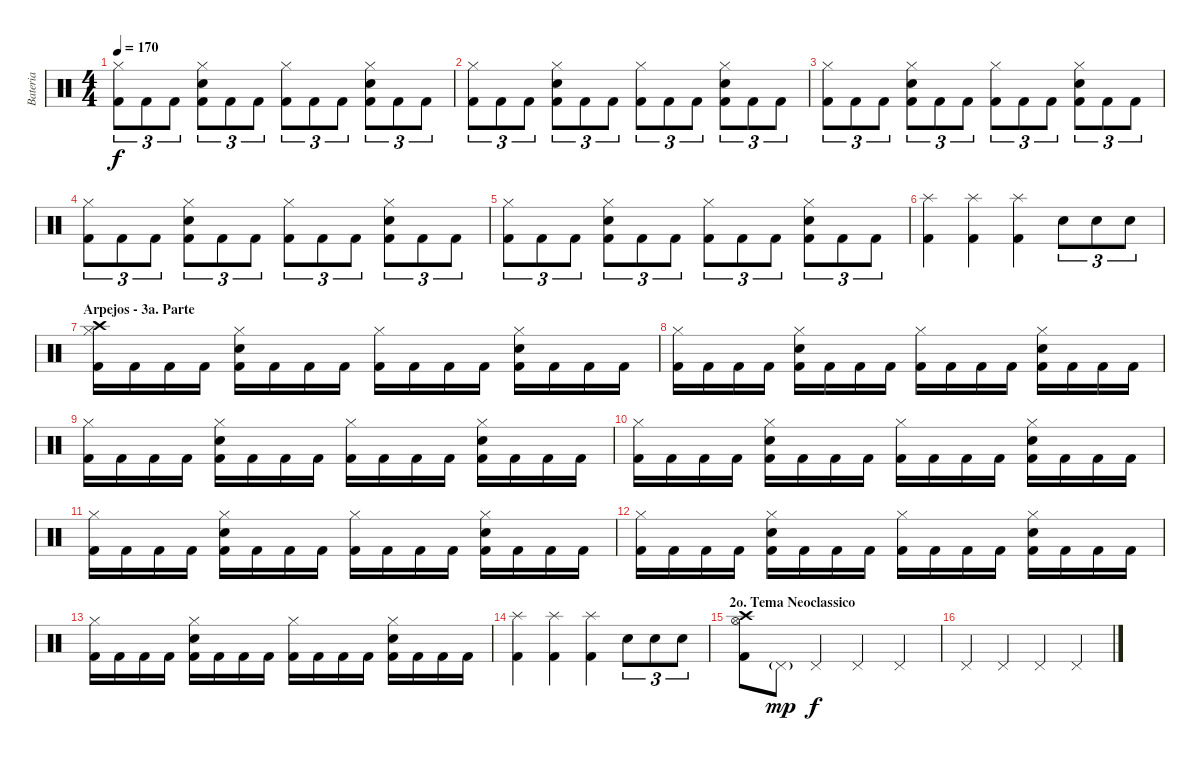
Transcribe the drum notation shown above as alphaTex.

\track ("Bateria" "Bateria") {instrument percussion}
\staff {score}
\articulation defaults
\ts (4 4)
\tempo 170
\clef neutral
\ks c
("Hi-Hat (closed)" "Kick (hit) 2").8{tu (3 2) dy f} "Kick (hit) 2".8{tu (3 2)} "Kick (hit) 2".8{tu (3 2)} ("Hi-Hat (closed)" "Snare (hit) 2" "Kick (hit) 2").8{tu (3 2)} "Kick (hit) 2".8{tu (3 2)} "Kick (hit) 2".8{tu (3 2)} ("Hi-Hat (closed)" "Kick (hit) 2").8{tu (3 2)} "Kick (hit) 2".8{tu (3 2)} "Kick (hit) 2".8{tu (3 2)} ("Hi-Hat (closed)" "Snare (hit) 2" "Kick (hit) 2").8{tu (3 2)} "Kick (hit) 2".8{tu (3 2)} "Kick (hit) 2".8{tu (3 2)} |
("Hi-Hat (closed)" "Kick (hit) 2").8{tu (3 2)} "Kick (hit) 2".8{tu (3 2)} "Kick (hit) 2".8{tu (3 2)} ("Hi-Hat (closed)" "Snare (hit) 2" "Kick (hit) 2").8{tu (3 2)} "Kick (hit) 2".8{tu (3 2)} "Kick (hit) 2".8{tu (3 2)} ("Hi-Hat (closed)" "Kick (hit) 2").8{tu (3 2)} "Kick (hit) 2".8{tu (3 2)} "Kick (hit) 2".8{tu (3 2)} ("Hi-Hat (closed)" "Snare (hit) 2" "Kick (hit) 2").8{tu (3 2)} "Kick (hit) 2".8{tu (3 2)} "Kick (hit) 2".8{tu (3 2)} |
("Hi-Hat (closed)" "Kick (hit) 2").8{tu (3 2)} "Kick (hit) 2".8{tu (3 2)} "Kick (hit) 2".8{tu (3 2)} ("Hi-Hat (closed)" "Snare (hit) 2" "Kick (hit) 2").8{tu (3 2)} "Kick (hit) 2".8{tu (3 2)} "Kick (hit) 2".8{tu (3 2)} ("Hi-Hat (closed)" "Kick (hit) 2").8{tu (3 2)} "Kick (hit) 2".8{tu (3 2)} "Kick (hit) 2".8{tu (3 2)} ("Hi-Hat (closed)" "Snare (hit) 2" "Kick (hit) 2").8{tu (3 2)} "Kick (hit) 2".8{tu (3 2)} "Kick (hit) 2".8{tu (3 2)} |
("Hi-Hat (closed)" "Kick (hit) 2").8{tu (3 2)} "Kick (hit) 2".8{tu (3 2)} "Kick (hit) 2".8{tu (3 2)} ("Hi-Hat (closed)" "Snare (hit) 2" "Kick (hit) 2").8{tu (3 2)} "Kick (hit) 2".8{tu (3 2)} "Kick (hit) 2".8{tu (3 2)} ("Hi-Hat (closed)" "Kick (hit) 2").8{tu (3 2)} "Kick (hit) 2".8{tu (3 2)} "Kick (hit) 2".8{tu (3 2)} ("Hi-Hat (closed)" "Snare (hit) 2" "Kick (hit) 2").8{tu (3 2)} "Kick (hit) 2".8{tu (3 2)} "Kick (hit) 2".8{tu (3 2)} |
("Hi-Hat (closed)" "Kick (hit) 2").8{tu (3 2)} "Kick (hit) 2".8{tu (3 2)} "Kick (hit) 2".8{tu (3 2)} ("Hi-Hat (closed)" "Snare (hit) 2" "Kick (hit) 2").8{tu (3 2)} "Kick (hit) 2".8{tu (3 2)} "Kick (hit) 2".8{tu (3 2)} ("Hi-Hat (closed)" "Kick (hit) 2").8{tu (3 2)} "Kick (hit) 2".8{tu (3 2)} "Kick (hit) 2".8{tu (3 2)} ("Hi-Hat (closed)" "Snare (hit) 2" "Kick (hit) 2").8{tu (3 2)} "Kick (hit) 2".8{tu (3 2)} "Kick (hit) 2".8{tu (3 2)} |
("Kick (hit) 2" "Splash (hit)").4 ("Kick (hit) 2" "Splash (hit)").4 ("Kick (hit) 2" "Splash (hit)").4 "Snare (hit) 2".8{tu (3 2)} "Snare (hit) 2".8{tu (3 2)} "Snare (hit) 2".8{tu (3 2)} |
\section ("" "Arpejos - 3a. Parte")
("Hi-Hat (closed)" "Kick (hit) 2" "Crash high (hit)").16 "Kick (hit) 2".16 "Kick (hit) 2".16 "Kick (hit) 2".16 ("Hi-Hat (closed)" "Snare (hit) 2" "Kick (hit) 2").16 "Kick (hit) 2".16 "Kick (hit) 2".16 "Kick (hit) 2".16 ("Hi-Hat (closed)" "Kick (hit) 2").16 "Kick (hit) 2".16 "Kick (hit) 2".16 "Kick (hit) 2".16 ("Hi-Hat (closed)" "Snare (hit) 2" "Kick (hit) 2").16 "Kick (hit) 2".16 "Kick (hit) 2".16 "Kick (hit) 2".16 |
("Hi-Hat (closed)" "Kick (hit) 2").16 "Kick (hit) 2".16 "Kick (hit) 2".16 "Kick (hit) 2".16 ("Hi-Hat (closed)" "Snare (hit) 2" "Kick (hit) 2").16 "Kick (hit) 2".16 "Kick (hit) 2".16 "Kick (hit) 2".16 ("Hi-Hat (closed)" "Kick (hit) 2").16 "Kick (hit) 2".16 "Kick (hit) 2".16 "Kick (hit) 2".16 ("Hi-Hat (closed)" "Snare (hit) 2" "Kick (hit) 2").16 "Kick (hit) 2".16 "Kick (hit) 2".16 "Kick (hit) 2".16 |
("Hi-Hat (closed)" "Kick (hit) 2").16 "Kick (hit) 2".16 "Kick (hit) 2".16 "Kick (hit) 2".16 ("Hi-Hat (closed)" "Snare (hit) 2" "Kick (hit) 2").16 "Kick (hit) 2".16 "Kick (hit) 2".16 "Kick (hit) 2".16 ("Hi-Hat (closed)" "Kick (hit) 2").16 "Kick (hit) 2".16 "Kick (hit) 2".16 "Kick (hit) 2".16 ("Hi-Hat (closed)" "Snare (hit) 2" "Kick (hit) 2").16 "Kick (hit) 2".16 "Kick (hit) 2".16 "Kick (hit) 2".16 |
("Hi-Hat (closed)" "Kick (hit) 2").16 "Kick (hit) 2".16 "Kick (hit) 2".16 "Kick (hit) 2".16 ("Hi-Hat (closed)" "Snare (hit) 2" "Kick (hit) 2").16 "Kick (hit) 2".16 "Kick (hit) 2".16 "Kick (hit) 2".16 ("Hi-Hat (closed)" "Kick (hit) 2").16 "Kick (hit) 2".16 "Kick (hit) 2".16 "Kick (hit) 2".16 ("Hi-Hat (closed)" "Snare (hit) 2" "Kick (hit) 2").16 "Kick (hit) 2".16 "Kick (hit) 2".16 "Kick (hit) 2".16 |
("Hi-Hat (closed)" "Kick (hit) 2").16 "Kick (hit) 2".16 "Kick (hit) 2".16 "Kick (hit) 2".16 ("Hi-Hat (closed)" "Snare (hit) 2" "Kick (hit) 2").16 "Kick (hit) 2".16 "Kick (hit) 2".16 "Kick (hit) 2".16 ("Hi-Hat (closed)" "Kick (hit) 2").16 "Kick (hit) 2".16 "Kick (hit) 2".16 "Kick (hit) 2".16 ("Hi-Hat (closed)" "Snare (hit) 2" "Kick (hit) 2").16 "Kick (hit) 2".16 "Kick (hit) 2".16 "Kick (hit) 2".16 |
("Hi-Hat (closed)" "Kick (hit) 2").16 "Kick (hit) 2".16 "Kick (hit) 2".16 "Kick (hit) 2".16 ("Hi-Hat (closed)" "Snare (hit) 2" "Kick (hit) 2").16 "Kick (hit) 2".16 "Kick (hit) 2".16 "Kick (hit) 2".16 ("Hi-Hat (closed)" "Kick (hit) 2").16 "Kick (hit) 2".16 "Kick (hit) 2".16 "Kick (hit) 2".16 ("Hi-Hat (closed)" "Snare (hit) 2" "Kick (hit) 2").16 "Kick (hit) 2".16 "Kick (hit) 2".16 "Kick (hit) 2".16 |
("Hi-Hat (closed)" "Kick (hit) 2").16 "Kick (hit) 2".16 "Kick (hit) 2".16 "Kick (hit) 2".16 ("Hi-Hat (closed)" "Snare (hit) 2" "Kick (hit) 2").16 "Kick (hit) 2".16 "Kick (hit) 2".16 "Kick (hit) 2".16 ("Hi-Hat (closed)" "Kick (hit) 2").16 "Kick (hit) 2".16 "Kick (hit) 2".16 "Kick (hit) 2".16 ("Hi-Hat (closed)" "Snare (hit) 2" "Kick (hit) 2").16 "Kick (hit) 2".16 "Kick (hit) 2".16 "Kick (hit) 2".16 |
("Kick (hit) 2" "Splash (hit)").4 ("Kick (hit) 2" "Splash (hit)").4 ("Kick (hit) 2" "Splash (hit)").4 "Snare (hit) 2".8{tu (3 2)} "Snare (hit) 2".8{tu (3 2)} "Snare (hit) 2".8{tu (3 2)} |
\section ("" "2o. Tema Neoclassico")
("Hi-Hat (open)" "Kick (hit) 2" "Crash high (hit)").8 "Pedal Hi-Hat (hit)"{g}.8{dy mp} "Pedal Hi-Hat (hit)".4{dy f} "Pedal Hi-Hat (hit)".4 "Pedal Hi-Hat (hit)".4 |
"Pedal Hi-Hat (hit)".4 "Pedal Hi-Hat (hit)".4 "Pedal Hi-Hat (hit)".4 "Pedal Hi-Hat (hit)".4
